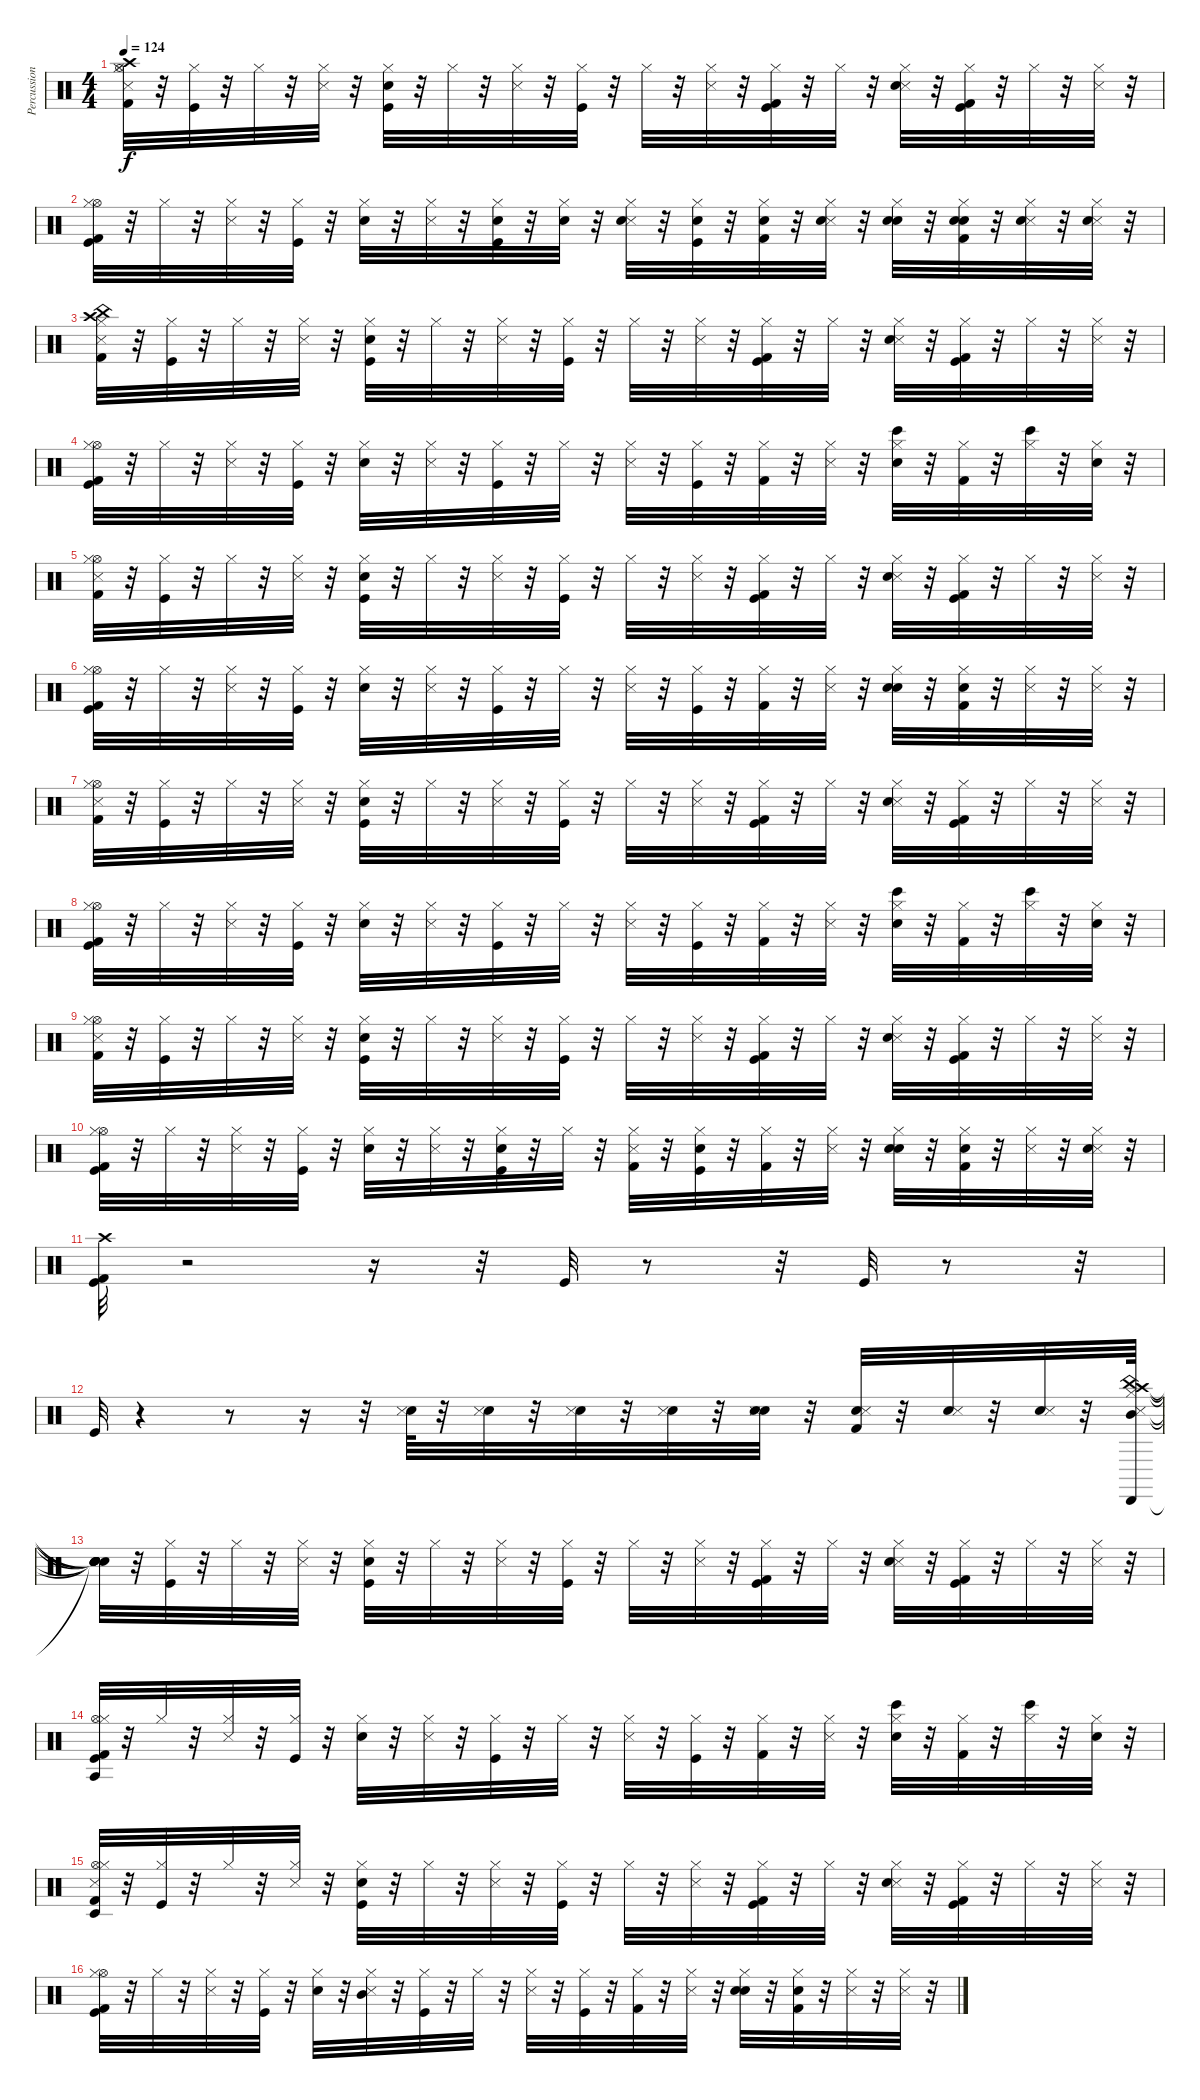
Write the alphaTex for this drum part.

\track ("Percussions" "Percussion") {instrument percussion}
\staff {score}
\articulation defaults
\ts (4 4)
\tempo 124
\clef neutral
\ks c
("Metronome (hit)" "Crash high (hit)" "Kick (hit) 2" "Hi-Hat (open)" "Hi-Hat (closed)").32{dy f} r.32 ("Kick (hit)" "Hi-Hat (closed)").32 r.32 "Hi-Hat (closed)".32 r.32 ("Metronome (hit)" "Hi-Hat (closed)").32 r.32 ("Kick (hit)" "Electric Snare (hit)" "Hi-Hat (closed)").32 r.32 "Hi-Hat (closed)".32 r.32 ("Metronome (hit)" "Hi-Hat (closed)").32 r.32 ("Kick (hit)" "Hi-Hat (closed)").32 r.32 "Hi-Hat (closed)".32 r.32 ("Metronome (hit)" "Hi-Hat (closed)").32 r.32 ("Kick (hit)" "Kick (hit) 2" "Hi-Hat (closed)").32 r.32 "Hi-Hat (closed)".32 r.32 ("Metronome (hit)" "Electric Snare (hit)" "Hi-Hat (closed)").32 r.32 ("Kick (hit)" "Kick (hit) 2" "Hi-Hat (closed)").32 r.32 "Hi-Hat (closed)".32 r.32 ("Metronome (hit)" "Hi-Hat (closed)").32 r.32 |
("Kick (hit)" "Hi-Hat (open)" "Kick (hit) 2" "Hi-Hat (closed)").32 r.32 "Hi-Hat (closed)".32 r.32 ("Metronome (hit)" "Hi-Hat (closed)").32 r.32 ("Kick (hit)" "Hi-Hat (closed)").32 r.32 ("Hi-Hat (closed)" "Electric Snare (hit)").32 r.32 ("Metronome (hit)" "Hi-Hat (closed)").32 r.32 ("Kick (hit)" "Electric Snare (hit)" "Hi-Hat (closed)").32 r.32 ("Electric Snare (hit)" "Hi-Hat (closed)").32 r.32 ("Metronome (hit)" "Electric Snare (hit)" "Hi-Hat (closed)").32 r.32 ("Kick (hit)" "Electric Snare (hit)" "Hi-Hat (closed)").32 r.32 ("Electric Snare (hit)" "Kick (hit) 2" "Hi-Hat (closed)").32 r.32 ("Metronome (hit)" "Electric Snare (hit)" "Hi-Hat (closed)").32 r.32 ("Hand Clap (hit)" "Hi-Hat (closed)" "Electric Snare (hit)").32 r.32 ("Hand Clap (hit)" "Electric Snare (hit)" "Kick (hit) 2" "Hi-Hat (closed)").32 r.32 ("Snare (side stick) 3" "Electric Snare (hit)" "Hi-Hat (closed)").32 r.32 ("Snare (side stick) 3" "Electric Snare (hit)" "Hi-Hat (closed)").32 r.32 |
("Metronome (hit)" "Crash high (hit)" "China (hit)" "Kick (hit) 2" "Hi-Hat (closed)").32 r.32 ("Kick (hit)" "Hi-Hat (closed)").32 r.32 "Hi-Hat (closed)".32 r.32 ("Metronome (hit)" "Hi-Hat (closed)").32 r.32 ("Kick (hit)" "Hi-Hat (closed)" "Electric Snare (hit)").32 r.32 "Hi-Hat (closed)".32 r.32 ("Metronome (hit)" "Hi-Hat (closed)").32 r.32 ("Kick (hit)" "Hi-Hat (closed)").32 r.32 "Hi-Hat (closed)".32 r.32 ("Metronome (hit)" "Hi-Hat (closed)").32 r.32 ("Kick (hit)" "Hi-Hat (closed)" "Kick (hit) 2").32 r.32 "Hi-Hat (closed)".32 r.32 ("Metronome (hit)" "Hi-Hat (closed)" "Electric Snare (hit)").32 r.32 ("Kick (hit)" "Kick (hit) 2" "Hi-Hat (closed)").32 r.32 "Hi-Hat (closed)".32 r.32 ("Metronome (hit)" "Hi-Hat (closed)").32 r.32 |
("Kick (hit)" "Hi-Hat (open)" "Kick (hit) 2" "Hi-Hat (closed)").32 r.32 "Hi-Hat (closed)".32 r.32 ("Metronome (hit)" "Hi-Hat (closed)").32 r.32 ("Kick (hit)" "Hi-Hat (closed)").32 r.32 ("Electric Snare (hit)" "Hi-Hat (closed)").32 r.32 ("Metronome (hit)" "Hi-Hat (closed)").32 r.32 ("Kick (hit)" "Hi-Hat (closed)").32 r.32 "Hi-Hat (closed)".32 r.32 ("Metronome (hit)" "Hi-Hat (closed)").32 r.32 ("Kick (hit)" "Hi-Hat (closed)").32 r.32 ("Hi-Hat (closed)" "Kick (hit) 2").32 r.32 ("Metronome (hit)" "Hi-Hat (closed)").32 r.32 ("Bongo High (hit)" "Electric Snare (hit)" "Hi-Hat (closed)").32 r.32 ("Kick (hit) 2" "Hi-Hat (closed)").32 r.32 ("Bongo High (hit)" "Hi-Hat (closed)").32 r.32 ("Hi-Hat (closed)" "Electric Snare (hit)").32 r.32 |
("Metronome (hit)" "Kick (hit) 2" "Hi-Hat (open)" "Hi-Hat (closed)").32 r.32 ("Kick (hit)" "Hi-Hat (closed)").32 r.32 "Hi-Hat (closed)".32 r.32 ("Metronome (hit)" "Hi-Hat (closed)").32 r.32 ("Kick (hit)" "Electric Snare (hit)" "Hi-Hat (closed)").32 r.32 "Hi-Hat (closed)".32 r.32 ("Metronome (hit)" "Hi-Hat (closed)").32 r.32 ("Kick (hit)" "Hi-Hat (closed)").32 r.32 "Hi-Hat (closed)".32 r.32 ("Metronome (hit)" "Hi-Hat (closed)").32 r.32 ("Kick (hit)" "Kick (hit) 2" "Hi-Hat (closed)").32 r.32 "Hi-Hat (closed)".32 r.32 ("Metronome (hit)" "Electric Snare (hit)" "Hi-Hat (closed)").32 r.32 ("Kick (hit)" "Kick (hit) 2" "Hi-Hat (closed)").32 r.32 "Hi-Hat (closed)".32 r.32 ("Metronome (hit)" "Hi-Hat (closed)").32 r.32 |
("Kick (hit)" "Hi-Hat (open)" "Kick (hit) 2" "Hi-Hat (closed)").32 r.32 "Hi-Hat (closed)".32 r.32 ("Metronome (hit)" "Hi-Hat (closed)").32 r.32 ("Kick (hit)" "Hi-Hat (closed)").32 r.32 ("Hi-Hat (closed)" "Electric Snare (hit)").32 r.32 ("Metronome (hit)" "Hi-Hat (closed)").32 r.32 ("Kick (hit)" "Hi-Hat (closed)").32 r.32 "Hi-Hat (closed)".32 r.32 ("Metronome (hit)" "Hi-Hat (closed)").32 r.32 ("Kick (hit)" "Hi-Hat (closed)").32 r.32 ("Kick (hit) 2" "Hi-Hat (closed)").32 r.32 ("Metronome (hit)" "Hi-Hat (closed)").32 r.32 ("Hand Clap (hit)" "Hi-Hat (closed)" "Electric Snare (hit)").32 r.32 ("Hand Clap (hit)" "Kick (hit) 2" "Hi-Hat (closed)").32 r.32 ("Snare (side stick) 3" "Hi-Hat (closed)").32 r.32 ("Snare (side stick) 3" "Hi-Hat (closed)").32 r.32 |
("Metronome (hit)" "Hi-Hat (open)" "Kick (hit) 2" "Hi-Hat (closed)").32 r.32 ("Kick (hit)" "Hi-Hat (closed)").32 r.32 "Hi-Hat (closed)".32 r.32 ("Metronome (hit)" "Hi-Hat (closed)").32 r.32 ("Kick (hit)" "Hi-Hat (closed)" "Electric Snare (hit)").32 r.32 "Hi-Hat (closed)".32 r.32 ("Metronome (hit)" "Hi-Hat (closed)").32 r.32 ("Kick (hit)" "Hi-Hat (closed)").32 r.32 "Hi-Hat (closed)".32 r.32 ("Metronome (hit)" "Hi-Hat (closed)").32 r.32 ("Kick (hit)" "Hi-Hat (closed)" "Kick (hit) 2").32 r.32 "Hi-Hat (closed)".32 r.32 ("Metronome (hit)" "Hi-Hat (closed)" "Electric Snare (hit)").32 r.32 ("Kick (hit)" "Kick (hit) 2" "Hi-Hat (closed)").32 r.32 "Hi-Hat (closed)".32 r.32 ("Metronome (hit)" "Hi-Hat (closed)").32 r.32 |
("Kick (hit)" "Hi-Hat (open)" "Kick (hit) 2" "Hi-Hat (closed)").32 r.32 "Hi-Hat (closed)".32 r.32 ("Metronome (hit)" "Hi-Hat (closed)").32 r.32 ("Kick (hit)" "Hi-Hat (closed)").32 r.32 ("Electric Snare (hit)" "Hi-Hat (closed)").32 r.32 ("Metronome (hit)" "Hi-Hat (closed)").32 r.32 ("Kick (hit)" "Hi-Hat (closed)").32 r.32 "Hi-Hat (closed)".32 r.32 ("Metronome (hit)" "Hi-Hat (closed)").32 r.32 ("Kick (hit)" "Hi-Hat (closed)").32 r.32 ("Hi-Hat (closed)" "Kick (hit) 2").32 r.32 ("Metronome (hit)" "Hi-Hat (closed)").32 r.32 ("Bongo High (hit)" "Electric Snare (hit)" "Hi-Hat (closed)").32 r.32 ("Kick (hit) 2" "Hi-Hat (closed)").32 r.32 ("Bongo High (hit)" "Hi-Hat (closed)").32 r.32 ("Hi-Hat (closed)" "Electric Snare (hit)").32 r.32 |
("Metronome (hit)" "Kick (hit) 2" "Hi-Hat (open)" "Hi-Hat (closed)").32 r.32 ("Kick (hit)" "Hi-Hat (closed)").32 r.32 "Hi-Hat (closed)".32 r.32 ("Metronome (hit)" "Hi-Hat (closed)").32 r.32 ("Kick (hit)" "Electric Snare (hit)" "Hi-Hat (closed)").32 r.32 "Hi-Hat (closed)".32 r.32 ("Metronome (hit)" "Hi-Hat (closed)").32 r.32 ("Kick (hit)" "Hi-Hat (closed)").32 r.32 "Hi-Hat (closed)".32 r.32 ("Metronome (hit)" "Hi-Hat (closed)").32 r.32 ("Kick (hit)" "Kick (hit) 2" "Hi-Hat (closed)").32 r.32 "Hi-Hat (closed)".32 r.32 ("Metronome (hit)" "Electric Snare (hit)" "Hi-Hat (closed)").32 r.32 ("Kick (hit)" "Kick (hit) 2" "Hi-Hat (closed)").32 r.32 "Hi-Hat (closed)".32 r.32 ("Metronome (hit)" "Hi-Hat (closed)").32 r.32 |
("Kick (hit)" "Hi-Hat (open)" "Kick (hit) 2" "Hi-Hat (closed)").32 r.32 "Hi-Hat (closed)".32 r.32 ("Metronome (hit)" "Hi-Hat (closed)").32 r.32 ("Kick (hit)" "Hi-Hat (closed)").32 r.32 ("Hi-Hat (closed)" "Electric Snare (hit)").32 r.32 ("Metronome (hit)" "Hi-Hat (closed)").32 r.32 ("Kick (hit)" "Electric Snare (hit)" "Hi-Hat (closed)").32 r.32 "Hi-Hat (closed)".32 r.32 ("Metronome (hit)" "Kick (hit) 2" "Hi-Hat (closed)").32 r.32 ("Kick (hit)" "Electric Snare (hit)" "Hi-Hat (closed)").32 r.32 ("Kick (hit) 2" "Hi-Hat (closed)").32 r.32 ("Metronome (hit)" "Hi-Hat (closed)").32 r.32 ("Hand Clap (hit)" "Hi-Hat (closed)" "Electric Snare (hit)").32 r.32 ("Hand Clap (hit)" "Kick (hit) 2" "Hi-Hat (closed)").32 r.32 ("Snare (side stick) 3" "Hi-Hat (closed)").32 r.32 ("Snare (side stick) 3" "Electric Snare (hit)" "Hi-Hat (closed)").32 r.32 |
("Kick (hit)" "Crash high (hit)" "Kick (hit) 2").32 r.2 r.16 r.32 "Kick (hit)".32 r.8 r.32 "Kick (hit)".32 r.8 r.32 |
"Kick (hit)".32 r.4 r.8 r.16 r.32 ("Snare (hit) 2" "Snare (side stick) 3").64 r.32 ("Snare (hit) 2" "Snare (side stick) 3").32 r.32 ("Snare (hit) 2" "Snare (side stick) 3").32 r.32 ("Snare (hit) 2" "Snare (side stick) 3").32 r.32 ("Snare (hit) 2" "Snare (side stick) 3" "Electric Snare (hit)").32 r.32 ("Snare (hit) 2" "Snare (side stick) 3" "Kick (hit) 2").32 r.32 ("Snare (hit) 2" "Snare (side stick) 3").32 r.32 ("Snare (hit) 2" "Snare (side stick) 3").32 r.32 ("Mid Tom (hit)" "Cabasa (hit)" "Metronome (hit)" "Crash high (hit)" "China (hit)" "Hi-Hat (closed)").64 |
("Snare (hit)"{t} "Snare (hit)"{t} "Snare (hit)"{t} "Snare (hit)"{t} "Snare (hit)"{t} "Snare (hit)"{t}).32 r.32 ("Kick (hit)" "Hi-Hat (closed)").32 r.32 "Hi-Hat (closed)".32 r.32 ("Metronome (hit)" "Hi-Hat (closed)").32 r.32 ("Kick (hit)" "Hi-Hat (closed)" "Electric Snare (hit)").32 r.32 "Hi-Hat (closed)".32 r.32 ("Metronome (hit)" "Hi-Hat (closed)").32 r.32 ("Kick (hit)" "Hi-Hat (closed)").32 r.32 "Hi-Hat (closed)".32 r.32 ("Metronome (hit)" "Hi-Hat (closed)").32 r.32 ("Kick (hit)" "Hi-Hat (closed)" "Kick (hit) 2").32 r.32 "Hi-Hat (closed)".32 r.32 ("Metronome (hit)" "Hi-Hat (closed)" "Electric Snare (hit)").32 r.32 ("Kick (hit)" "Kick (hit) 2" "Hi-Hat (closed)").32 r.32 "Hi-Hat (closed)".32 r.32 ("Metronome (hit)" "Hi-Hat (closed)").32 r.32 |
("Agogo tow (hit)" "Kick (hit)" "Hi-Hat (open)" "Kick (hit) 2" "Hi-Hat (closed)").32 r.32 "Hi-Hat (closed)".32 r.32 ("Metronome (hit)" "Hi-Hat (closed)").32 r.32 ("Kick (hit)" "Hi-Hat (closed)").32 r.32 ("Electric Snare (hit)" "Hi-Hat (closed)").32 r.32 ("Metronome (hit)" "Hi-Hat (closed)").32 r.32 ("Kick (hit)" "Hi-Hat (closed)").32 r.32 "Hi-Hat (closed)".32 r.32 ("Metronome (hit)" "Hi-Hat (closed)").32 r.32 ("Kick (hit)" "Hi-Hat (closed)").32 r.32 ("Hi-Hat (closed)" "Kick (hit) 2").32 r.32 ("Metronome (hit)" "Hi-Hat (closed)").32 r.32 ("Bongo High (hit)" "Electric Snare (hit)" "Hi-Hat (closed)").32 r.32 ("Kick (hit) 2" "Hi-Hat (closed)").32 r.32 ("Bongo High (hit)" "Hi-Hat (closed)").32 r.32 ("Hi-Hat (closed)" "Electric Snare (hit)").32 r.32 |
("Timbale low (hit)" "Metronome (hit)" "Kick (hit) 2" "Hi-Hat (open)" "Hi-Hat (closed)").32 r.32 ("Kick (hit)" "Hi-Hat (closed)").32 r.32 "Hi-Hat (closed)".32 r.32 ("Metronome (hit)" "Hi-Hat (closed)").32 r.32 ("Kick (hit)" "Electric Snare (hit)" "Hi-Hat (closed)").32 r.32 "Hi-Hat (closed)".32 r.32 ("Metronome (hit)" "Hi-Hat (closed)").32 r.32 ("Kick (hit)" "Hi-Hat (closed)").32 r.32 "Hi-Hat (closed)".32 r.32 ("Metronome (hit)" "Hi-Hat (closed)").32 r.32 ("Kick (hit)" "Kick (hit) 2" "Hi-Hat (closed)").32 r.32 "Hi-Hat (closed)".32 r.32 ("Metronome (hit)" "Electric Snare (hit)" "Hi-Hat (closed)").32 r.32 ("Kick (hit)" "Kick (hit) 2" "Hi-Hat (closed)").32 r.32 "Hi-Hat (closed)".32 r.32 ("Metronome (hit)" "Hi-Hat (closed)").32 r.32 |
("Kick (hit)" "Hi-Hat (open)" "Kick (hit) 2" "Hi-Hat (closed)").32 r.32 "Hi-Hat (closed)".32 r.32 ("Metronome (hit)" "Hi-Hat (closed)").32 r.32 ("Kick (hit)" "Hi-Hat (closed)").32 r.32 ("Hi-Hat (closed)" "Electric Snare (hit)").32 r.32 ("Mid Tom (hit)" "Metronome (hit)" "Hi-Hat (closed)").32 r.32 ("Kick (hit)" "Hi-Hat (closed)").32 r.32 "Hi-Hat (closed)".32 r.32 ("Metronome (hit)" "Hi-Hat (closed)").32 r.32 ("Kick (hit)" "Hi-Hat (closed)").32 r.32 ("Kick (hit) 2" "Hi-Hat (closed)").32 r.32 ("Metronome (hit)" "Hi-Hat (closed)").32 r.32 ("Hand Clap (hit)" "Hi-Hat (closed)" "Electric Snare (hit)").32 r.32 ("Hand Clap (hit)" "Kick (hit) 2" "Hi-Hat (closed)").32 r.32 ("Snare (side stick) 3" "Hi-Hat (closed)").32 r.32 ("Snare (side stick) 3" "Hi-Hat (closed)").32 r.32
